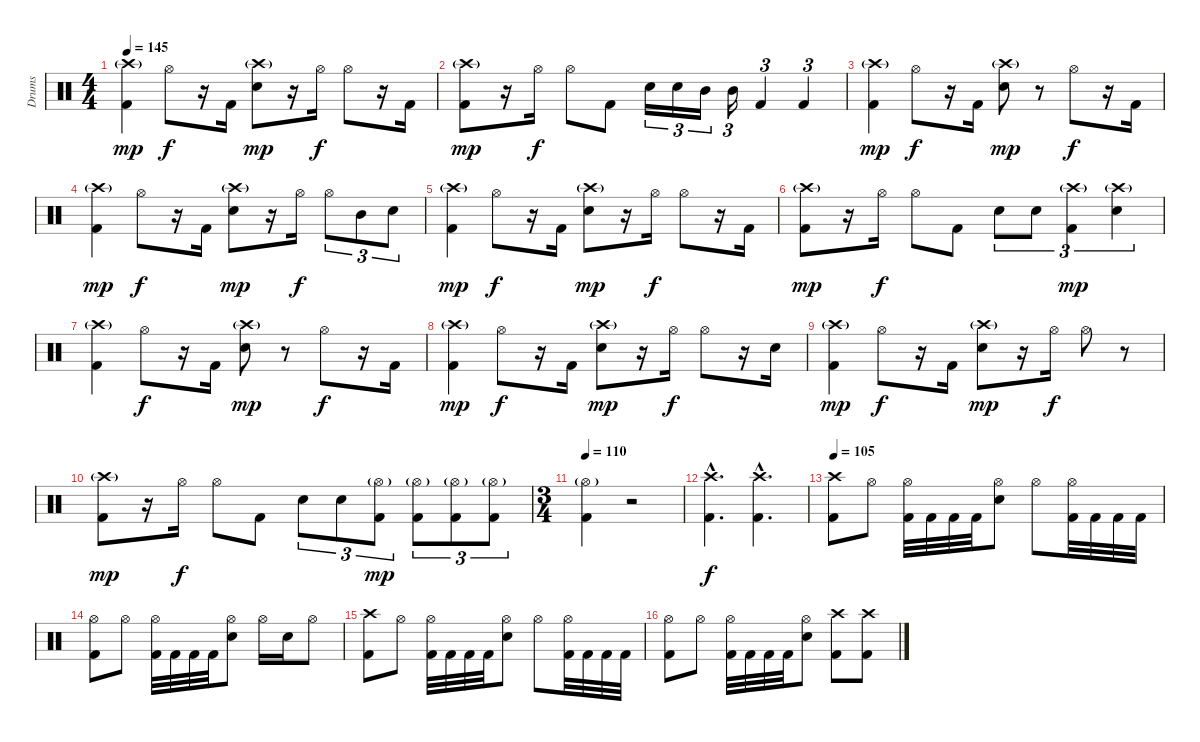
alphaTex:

\track ("Drums" "Drums") {instrument percussion}
\staff {score}
\articulation defaults
\ts (4 4)
\tempo 145
\clef neutral
\ks c
("Crash high (hit)"{g} "Kick (hit) 2").4{dy mp} "Hi-Hat (open)".8{dy f} r.16 "Kick (hit) 2".16 ("Crash high (hit)"{g} "Electric Snare (hit)").8{dy mp} r.16 "Hi-Hat (open)".16{dy f} "Hi-Hat (open)".8 r.16 "Kick (hit) 2".16 |
("Crash high (hit)"{g} "Kick (hit) 2").8{dy mp} r.16 "Hi-Hat (open)".16{dy f} "Hi-Hat (open)".8 "Kick (hit) 2".8 "Electric Snare (hit)".16{tu (3 2)} "Electric Snare (hit)".16{tu (3 2)} "Mid Tom (hit)".16{tu (3 2)} "Mid Tom (hit)".16{tu (3 2)} "Kick (hit) 2".4{tu (3 2)} "Kick (hit) 2".4{tu (3 2)} |
("Crash high (hit)"{g} "Kick (hit) 2").4{dy mp} "Hi-Hat (open)".8{dy f} r.16 "Kick (hit) 2".16 ("Crash high (hit)"{g} "Electric Snare (hit)").8{dy mp} r.8 "Hi-Hat (open)".8{dy f} r.16 "Kick (hit) 2".16 |
("Crash high (hit)"{g} "Kick (hit) 2").4{dy mp} "Hi-Hat (open)".8{dy f} r.16 "Kick (hit) 2".16 ("Crash high (hit)"{g} "Electric Snare (hit)").8{dy mp} r.16 "Hi-Hat (open)".16{dy f} "Hi-Hat (open)".8{tu (3 2)} "Mid Tom (hit)".8{tu (3 2)} "Electric Snare (hit)".8{tu (3 2)} |
("Crash high (hit)"{g} "Kick (hit) 2").4{dy mp} "Hi-Hat (open)".8{dy f} r.16 "Kick (hit) 2".16 ("Crash high (hit)"{g} "Electric Snare (hit)").8{dy mp} r.16 "Hi-Hat (open)".16{dy f} "Hi-Hat (open)".8 r.16 "Kick (hit) 2".16 |
("Crash high (hit)"{g} "Kick (hit) 2").8{dy mp} r.16 "Hi-Hat (open)".16{dy f} "Hi-Hat (open)".8 "Kick (hit) 2".8 "Electric Snare (hit)".8{tu (3 2)} "Electric Snare (hit)".8{tu (3 2)} ("Crash high (hit)"{g} "Kick (hit) 2").4{tu (3 2) dy mp} ("Crash high (hit)"{g} "Electric Snare (hit)").4{tu (3 2)} |
("Crash high (hit)"{g} "Kick (hit) 2").4 "Hi-Hat (open)".8{dy f} r.16 "Kick (hit) 2".16 ("Crash high (hit)"{g} "Electric Snare (hit)").8{dy mp} r.8 "Hi-Hat (open)".8{dy f} r.16 "Kick (hit) 2".16 |
("Crash high (hit)"{g} "Kick (hit) 2").4{dy mp} "Hi-Hat (open)".8{dy f} r.16 "Kick (hit) 2".16 ("Crash high (hit)"{g} "Electric Snare (hit)").8{dy mp} r.16 "Hi-Hat (open)".16{dy f} "Hi-Hat (open)".8 r.16 "Electric Snare (hit)".16 |
("Crash high (hit)"{g} "Kick (hit) 2").4{dy mp} "Hi-Hat (open)".8{dy f} r.16 "Kick (hit) 2".16 ("Crash high (hit)"{g} "Electric Snare (hit)").8{dy mp} r.16 "Hi-Hat (open)".16{dy f} "Hi-Hat (open)".8 r.8 |
("Crash high (hit)"{g} "Kick (hit) 2").8{dy mp} r.16 "Hi-Hat (open)".16{dy f} "Hi-Hat (open)".8 "Kick (hit) 2".8 "Electric Snare (hit)".8{tu (3 2)} "Electric Snare (hit)".8{tu (3 2)} ("Hi-Hat (open)"{g} "Kick (hit) 2").8{tu (3 2) dy mp} ("Hi-Hat (open)"{g} "Kick (hit) 2").8{tu (3 2)} ("Hi-Hat (open)"{g} "Kick (hit) 2").8{tu (3 2)} ("Hi-Hat (open)"{g} "Kick (hit) 2").8{tu (3 2)} |
\ts (3 4)
\tempo 110
("Hi-Hat (open)"{g} "Kick (hit) 2").4 r.2 |
("Crash high (hit)"{hac} "Kick (hit) 2"{hac}).4{d dy f} ("Crash high (hit)"{hac} "Kick (hit) 2"{hac}).4{d} |
\tempo 105
("Crash high (hit)" "Kick (hit) 2").8 "Hi-Hat (open)".8 ("Hi-Hat (open)" "Kick (hit) 2").32 "Kick (hit) 2".32 "Kick (hit) 2".32 "Kick (hit) 2".32 ("Hi-Hat (open)" "Electric Snare (hit)").8 "Hi-Hat (open)".8 ("Hi-Hat (open)" "Kick (hit) 2").32 "Kick (hit) 2".32 "Kick (hit) 2".32 "Kick (hit) 2".32 |
("Hi-Hat (open)" "Kick (hit) 2").8 "Hi-Hat (open)".8 ("Hi-Hat (open)" "Kick (hit) 2").32 "Kick (hit) 2".32 "Kick (hit) 2".32 "Kick (hit) 2".32 ("Hi-Hat (open)" "Electric Snare (hit)").8 "Hi-Hat (open)".16 "Electric Snare (hit)".16 "Hi-Hat (open)".8 |
("Crash high (hit)" "Kick (hit) 2").8 "Hi-Hat (open)".8 ("Hi-Hat (open)" "Kick (hit) 2").32 "Kick (hit) 2".32 "Kick (hit) 2".32 "Kick (hit) 2".32 ("Hi-Hat (open)" "Electric Snare (hit)").8 "Hi-Hat (open)".8 ("Hi-Hat (open)" "Kick (hit) 2").32 "Kick (hit) 2".32 "Kick (hit) 2".32 "Kick (hit) 2".32 |
("Hi-Hat (open)" "Kick (hit) 2").8 "Hi-Hat (open)".8 ("Hi-Hat (open)" "Kick (hit) 2").32 "Kick (hit) 2".32 "Kick (hit) 2".32 "Kick (hit) 2".32 ("Hi-Hat (open)" "Electric Snare (hit)").8 ("Crash high (hit)" "Kick (hit) 2").8 ("Crash high (hit)" "Kick (hit) 2").8
